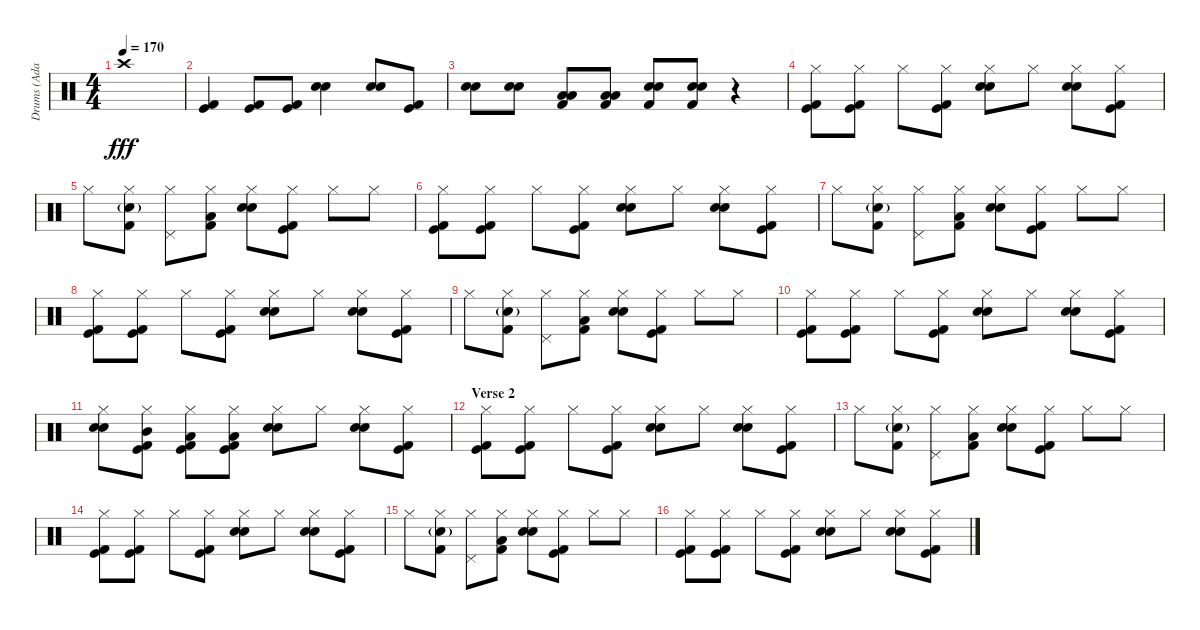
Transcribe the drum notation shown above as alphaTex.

\track ("Drums (Adam)" "Drums (Ada") {instrument percussion}
\staff {score}
\articulation defaults
\ts (4 4)
\tempo 170
\clef neutral
\ks c "Crash high (hit)".1{dy fff}
|
("Kick (hit)" "Kick (hit) 2").4 ("Kick (hit)" "Kick (hit) 2").8 ("Kick (hit)" "Kick (hit) 2").8 ("Snare (hit) 2" "Electric Snare (hit)").4 ("Snare (hit) 2" "Electric Snare (hit)").8 ("Kick (hit)" "Kick (hit) 2").8 |
("Snare (hit) 2" "Electric Snare (hit)").8 ("Snare (hit) 2" "Electric Snare (hit)").8 ("Low Floor Tom (hit)" "Low Tom (hit)" "Kick (hit) 2").8 ("Low Floor Tom (hit)" "Low Tom (hit)" "Kick (hit) 2").8 ("Snare (hit) 2" "Electric Snare (hit)" "Kick (hit) 2").8 ("Snare (hit) 2" "Electric Snare (hit)" "Kick (hit) 2").8 r.4 |
("Hi-Hat (closed)" "Kick (hit)" "Kick (hit) 2").8 ("Hi-Hat (closed)" "Kick (hit)" "Kick (hit) 2").8 "Hi-Hat (closed)".8 ("Hi-Hat (closed)" "Kick (hit)" "Kick (hit) 2").8 ("Hi-Hat (closed)" "Snare (hit) 2" "Electric Snare (hit)").8 "Hi-Hat (closed)".8 ("Hi-Hat (closed)" "Snare (hit) 2" "Electric Snare (hit)").8 ("Hi-Hat (closed)" "Kick (hit)" "Kick (hit) 2").8 |
"Hi-Hat (closed)".8 ("Hi-Hat (closed)" "Electric Snare (hit)"{g} "Kick (hit) 2").8 ("Hi-Hat (closed)" "Pedal Hi-Hat (hit)").8 ("Hi-Hat (closed)" "Low Tom (hit)" "Kick (hit) 2").8 ("Hi-Hat (closed)" "Snare (hit) 2" "Electric Snare (hit)").8 ("Hi-Hat (closed)" "Kick (hit)" "Kick (hit) 2").8 "Hi-Hat (closed)".8 "Hi-Hat (closed)".8 |
("Hi-Hat (closed)" "Kick (hit)" "Kick (hit) 2").8 ("Hi-Hat (closed)" "Kick (hit)" "Kick (hit) 2").8 "Hi-Hat (closed)".8 ("Hi-Hat (closed)" "Kick (hit)" "Kick (hit) 2").8 ("Hi-Hat (closed)" "Snare (hit) 2" "Electric Snare (hit)").8 "Hi-Hat (closed)".8 ("Hi-Hat (closed)" "Snare (hit) 2" "Electric Snare (hit)").8 ("Hi-Hat (closed)" "Kick (hit)" "Kick (hit) 2").8 |
"Hi-Hat (closed)".8 ("Hi-Hat (closed)" "Electric Snare (hit)"{g} "Kick (hit) 2").8 ("Hi-Hat (closed)" "Pedal Hi-Hat (hit)").8 ("Hi-Hat (closed)" "Low Tom (hit)" "Kick (hit) 2").8 ("Hi-Hat (closed)" "Snare (hit) 2" "Electric Snare (hit)").8 ("Hi-Hat (closed)" "Kick (hit)" "Kick (hit) 2").8 "Hi-Hat (closed)".8 "Hi-Hat (closed)".8 |
("Hi-Hat (closed)" "Kick (hit)" "Kick (hit) 2").8 ("Hi-Hat (closed)" "Kick (hit)" "Kick (hit) 2").8 "Hi-Hat (closed)".8 ("Hi-Hat (closed)" "Kick (hit)" "Kick (hit) 2").8 ("Hi-Hat (closed)" "Snare (hit) 2" "Electric Snare (hit)").8 "Hi-Hat (closed)".8 ("Hi-Hat (closed)" "Snare (hit) 2" "Electric Snare (hit)").8 ("Hi-Hat (closed)" "Kick (hit)" "Kick (hit) 2").8 |
"Hi-Hat (closed)".8 ("Hi-Hat (closed)" "Electric Snare (hit)"{g} "Kick (hit) 2").8 ("Hi-Hat (closed)" "Pedal Hi-Hat (hit)").8 ("Hi-Hat (closed)" "Low Tom (hit)" "Kick (hit) 2").8 ("Hi-Hat (closed)" "Snare (hit) 2" "Electric Snare (hit)").8 ("Hi-Hat (closed)" "Kick (hit)" "Kick (hit) 2").8 "Hi-Hat (closed)".8 "Hi-Hat (closed)".8 |
("Hi-Hat (closed)" "Kick (hit)" "Kick (hit) 2").8 ("Hi-Hat (closed)" "Kick (hit)" "Kick (hit) 2").8 "Hi-Hat (closed)".8 ("Hi-Hat (closed)" "Kick (hit)" "Kick (hit) 2").8 ("Hi-Hat (closed)" "Snare (hit) 2" "Electric Snare (hit)").8 "Hi-Hat (closed)".8 ("Hi-Hat (closed)" "Snare (hit) 2" "Electric Snare (hit)").8 ("Hi-Hat (closed)" "Kick (hit)" "Kick (hit) 2").8 |
("Hi-Hat (closed)" "Electric Snare (hit)" "Snare (hit) 2").8 ("Hi-Hat (closed)" "Mid Tom (hit)" "Kick (hit)" "Kick (hit) 2").8 ("Hi-Hat (closed)" "Low Tom (hit)" "Kick (hit)" "Kick (hit) 2").8 ("Hi-Hat (closed)" "Low Tom (hit)" "Kick (hit)" "Kick (hit) 2").8 ("Hi-Hat (closed)" "Snare (hit) 2" "Electric Snare (hit)").8 "Hi-Hat (closed)".8 ("Hi-Hat (closed)" "Snare (hit) 2" "Electric Snare (hit)").8 ("Hi-Hat (closed)" "Kick (hit)" "Kick (hit) 2").8 |
\section ("" "Verse 2")
("Hi-Hat (closed)" "Kick (hit)" "Kick (hit) 2").8 ("Hi-Hat (closed)" "Kick (hit)" "Kick (hit) 2").8 "Hi-Hat (closed)".8 ("Hi-Hat (closed)" "Kick (hit)" "Kick (hit) 2").8 ("Hi-Hat (closed)" "Snare (hit) 2" "Electric Snare (hit)").8 "Hi-Hat (closed)".8 ("Hi-Hat (closed)" "Snare (hit) 2" "Electric Snare (hit)").8 ("Hi-Hat (closed)" "Kick (hit)" "Kick (hit) 2").8 |
"Hi-Hat (closed)".8 ("Hi-Hat (closed)" "Electric Snare (hit)"{g} "Kick (hit) 2").8 ("Hi-Hat (closed)" "Pedal Hi-Hat (hit)").8 ("Hi-Hat (closed)" "Low Tom (hit)" "Kick (hit) 2").8 ("Hi-Hat (closed)" "Snare (hit) 2" "Electric Snare (hit)").8 ("Hi-Hat (closed)" "Kick (hit)" "Kick (hit) 2").8 "Hi-Hat (closed)".8 "Hi-Hat (closed)".8 |
("Hi-Hat (closed)" "Kick (hit)" "Kick (hit) 2").8 ("Hi-Hat (closed)" "Kick (hit)" "Kick (hit) 2").8 "Hi-Hat (closed)".8 ("Hi-Hat (closed)" "Kick (hit)" "Kick (hit) 2").8 ("Hi-Hat (closed)" "Snare (hit) 2" "Electric Snare (hit)").8 "Hi-Hat (closed)".8 ("Hi-Hat (closed)" "Snare (hit) 2" "Electric Snare (hit)").8 ("Hi-Hat (closed)" "Kick (hit)" "Kick (hit) 2").8 |
"Hi-Hat (closed)".8 ("Hi-Hat (closed)" "Electric Snare (hit)"{g} "Kick (hit) 2").8 ("Hi-Hat (closed)" "Pedal Hi-Hat (hit)").8 ("Hi-Hat (closed)" "Low Tom (hit)" "Kick (hit) 2").8 ("Hi-Hat (closed)" "Snare (hit) 2" "Electric Snare (hit)").8 ("Hi-Hat (closed)" "Kick (hit)" "Kick (hit) 2").8 "Hi-Hat (closed)".8 "Hi-Hat (closed)".8 |
("Hi-Hat (closed)" "Kick (hit)" "Kick (hit) 2").8 ("Hi-Hat (closed)" "Kick (hit)" "Kick (hit) 2").8 "Hi-Hat (closed)".8 ("Hi-Hat (closed)" "Kick (hit)" "Kick (hit) 2").8 ("Hi-Hat (closed)" "Snare (hit) 2" "Electric Snare (hit)").8 "Hi-Hat (closed)".8 ("Hi-Hat (closed)" "Snare (hit) 2" "Electric Snare (hit)").8 ("Hi-Hat (closed)" "Kick (hit)" "Kick (hit) 2").8
